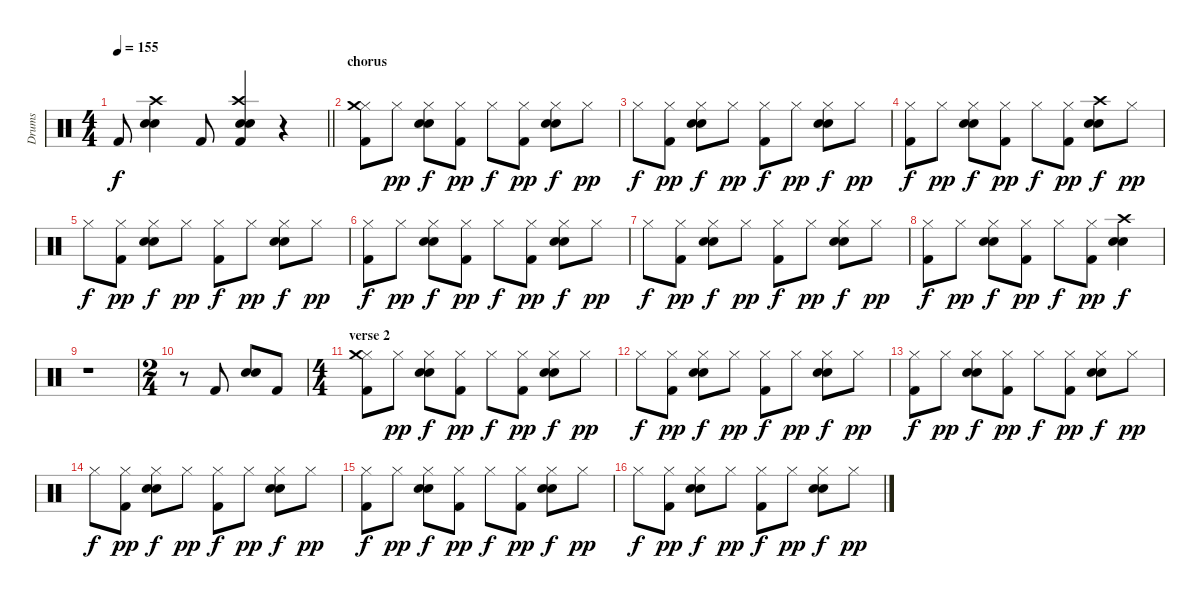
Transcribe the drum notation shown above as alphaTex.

\track ("Drums" "Drums") {instrument percussion}
\staff {score}
\articulation defaults
\ts (4 4)
\tempo 155
\clef neutral
\barLineRight lightlight
\ks c "Kick (hit) 2".8{dy f}
("Crash high (hit)" "Snare (hit) 2" "Electric Snare (hit)").4 "Kick (hit) 2".8 ("Crash high (hit)" "Snare (hit) 2" "Electric Snare (hit)" "Kick (hit) 2").4 r.4 |
\section ("" "chorus")
("Hi-Hat (closed)" "Crash medium (hit)" "Kick (hit) 2").8 "Hi-Hat (closed)".8{dy pp} ("Hi-Hat (closed)" "Snare (hit) 2" "Electric Snare (hit)").8{dy f} ("Hi-Hat (closed)" "Kick (hit) 2").8{dy pp} "Hi-Hat (closed)".8{dy f} ("Hi-Hat (closed)" "Kick (hit) 2").8{dy pp} ("Hi-Hat (closed)" "Snare (hit) 2" "Electric Snare (hit)").8{dy f} "Hi-Hat (closed)".8{dy pp} |
"Hi-Hat (closed)".8{dy f} ("Hi-Hat (closed)" "Kick (hit) 2").8{dy pp} ("Hi-Hat (closed)" "Snare (hit) 2" "Electric Snare (hit)").8{dy f} "Hi-Hat (closed)".8{dy pp} ("Hi-Hat (closed)" "Kick (hit) 2").8{dy f} "Hi-Hat (closed)".8{dy pp} ("Hi-Hat (closed)" "Snare (hit) 2" "Electric Snare (hit)").8{dy f} "Hi-Hat (closed)".8{dy pp} |
("Hi-Hat (closed)" "Kick (hit) 2").8{dy f} "Hi-Hat (closed)".8{dy pp} ("Hi-Hat (closed)" "Snare (hit) 2" "Electric Snare (hit)").8{dy f} ("Hi-Hat (closed)" "Kick (hit) 2").8{dy pp} "Hi-Hat (closed)".8{dy f} ("Hi-Hat (closed)" "Kick (hit) 2").8{dy pp} ("Crash high (hit)" "Snare (hit) 2" "Electric Snare (hit)").8{dy f} "Hi-Hat (closed)".8{dy pp} |
"Hi-Hat (closed)".8{dy f} ("Hi-Hat (closed)" "Kick (hit) 2").8{dy pp} ("Hi-Hat (closed)" "Snare (hit) 2" "Electric Snare (hit)").8{dy f} "Hi-Hat (closed)".8{dy pp} ("Hi-Hat (closed)" "Kick (hit) 2").8{dy f} "Hi-Hat (closed)".8{dy pp} ("Hi-Hat (closed)" "Snare (hit) 2" "Electric Snare (hit)").8{dy f} "Hi-Hat (closed)".8{dy pp} |
("Hi-Hat (closed)" "Kick (hit) 2").8{dy f} "Hi-Hat (closed)".8{dy pp} ("Hi-Hat (closed)" "Snare (hit) 2" "Electric Snare (hit)").8{dy f} ("Hi-Hat (closed)" "Kick (hit) 2").8{dy pp} "Hi-Hat (closed)".8{dy f} ("Hi-Hat (closed)" "Kick (hit) 2").8{dy pp} ("Hi-Hat (closed)" "Snare (hit) 2" "Electric Snare (hit)").8{dy f} "Hi-Hat (closed)".8{dy pp} |
"Hi-Hat (closed)".8{dy f} ("Hi-Hat (closed)" "Kick (hit) 2").8{dy pp} ("Hi-Hat (closed)" "Snare (hit) 2" "Electric Snare (hit)").8{dy f} "Hi-Hat (closed)".8{dy pp} ("Hi-Hat (closed)" "Kick (hit) 2").8{dy f} "Hi-Hat (closed)".8{dy pp} ("Hi-Hat (closed)" "Snare (hit) 2" "Electric Snare (hit)").8{dy f} "Hi-Hat (closed)".8{dy pp} |
("Hi-Hat (closed)" "Kick (hit) 2").8{dy f} "Hi-Hat (closed)".8{dy pp} ("Hi-Hat (closed)" "Snare (hit) 2" "Electric Snare (hit)").8{dy f} ("Hi-Hat (closed)" "Kick (hit) 2").8{dy pp} "Hi-Hat (closed)".8{dy f} ("Hi-Hat (closed)" "Kick (hit) 2").8{dy pp} ("Crash high (hit)" "Snare (hit) 2" "Electric Snare (hit)").4{dy f} |
r.1 |
\ts (2 4)
r.8 "Kick (hit) 2".8 ("Snare (hit) 2" "Electric Snare (hit)").8 "Kick (hit) 2".8 |
\ts (4 4)
\section ("" "verse 2")
("Hi-Hat (closed)" "Crash medium (hit)" "Kick (hit) 2").8 "Hi-Hat (closed)".8{dy pp} ("Hi-Hat (closed)" "Snare (hit) 2" "Electric Snare (hit)").8{dy f} ("Hi-Hat (closed)" "Kick (hit) 2").8{dy pp} "Hi-Hat (closed)".8{dy f} ("Hi-Hat (closed)" "Kick (hit) 2").8{dy pp} ("Hi-Hat (closed)" "Snare (hit) 2" "Electric Snare (hit)").8{dy f} "Hi-Hat (closed)".8{dy pp} |
"Hi-Hat (closed)".8{dy f} ("Hi-Hat (closed)" "Kick (hit) 2").8{dy pp} ("Hi-Hat (closed)" "Snare (hit) 2" "Electric Snare (hit)").8{dy f} "Hi-Hat (closed)".8{dy pp} ("Hi-Hat (closed)" "Kick (hit) 2").8{dy f} "Hi-Hat (closed)".8{dy pp} ("Hi-Hat (closed)" "Snare (hit) 2" "Electric Snare (hit)").8{dy f} "Hi-Hat (closed)".8{dy pp} |
("Hi-Hat (closed)" "Kick (hit) 2").8{dy f} "Hi-Hat (closed)".8{dy pp} ("Hi-Hat (closed)" "Snare (hit) 2" "Electric Snare (hit)").8{dy f} ("Hi-Hat (closed)" "Kick (hit) 2").8{dy pp} "Hi-Hat (closed)".8{dy f} ("Hi-Hat (closed)" "Kick (hit) 2").8{dy pp} ("Hi-Hat (closed)" "Snare (hit) 2" "Electric Snare (hit)").8{dy f} "Hi-Hat (closed)".8{dy pp} |
"Hi-Hat (closed)".8{dy f} ("Hi-Hat (closed)" "Kick (hit) 2").8{dy pp} ("Hi-Hat (closed)" "Snare (hit) 2" "Electric Snare (hit)").8{dy f} "Hi-Hat (closed)".8{dy pp} ("Hi-Hat (closed)" "Kick (hit) 2").8{dy f} "Hi-Hat (closed)".8{dy pp} ("Hi-Hat (closed)" "Snare (hit) 2" "Electric Snare (hit)").8{dy f} "Hi-Hat (closed)".8{dy pp} |
("Hi-Hat (closed)" "Kick (hit) 2").8{dy f} "Hi-Hat (closed)".8{dy pp} ("Hi-Hat (closed)" "Snare (hit) 2" "Electric Snare (hit)").8{dy f} ("Hi-Hat (closed)" "Kick (hit) 2").8{dy pp} "Hi-Hat (closed)".8{dy f} ("Hi-Hat (closed)" "Kick (hit) 2").8{dy pp} ("Hi-Hat (closed)" "Snare (hit) 2" "Electric Snare (hit)").8{dy f} "Hi-Hat (closed)".8{dy pp} |
"Hi-Hat (closed)".8{dy f} ("Hi-Hat (closed)" "Kick (hit) 2").8{dy pp} ("Hi-Hat (closed)" "Snare (hit) 2" "Electric Snare (hit)").8{dy f} "Hi-Hat (closed)".8{dy pp} ("Hi-Hat (closed)" "Kick (hit) 2").8{dy f} "Hi-Hat (closed)".8{dy pp} ("Hi-Hat (closed)" "Snare (hit) 2" "Electric Snare (hit)").8{dy f} "Hi-Hat (closed)".8{dy pp}
